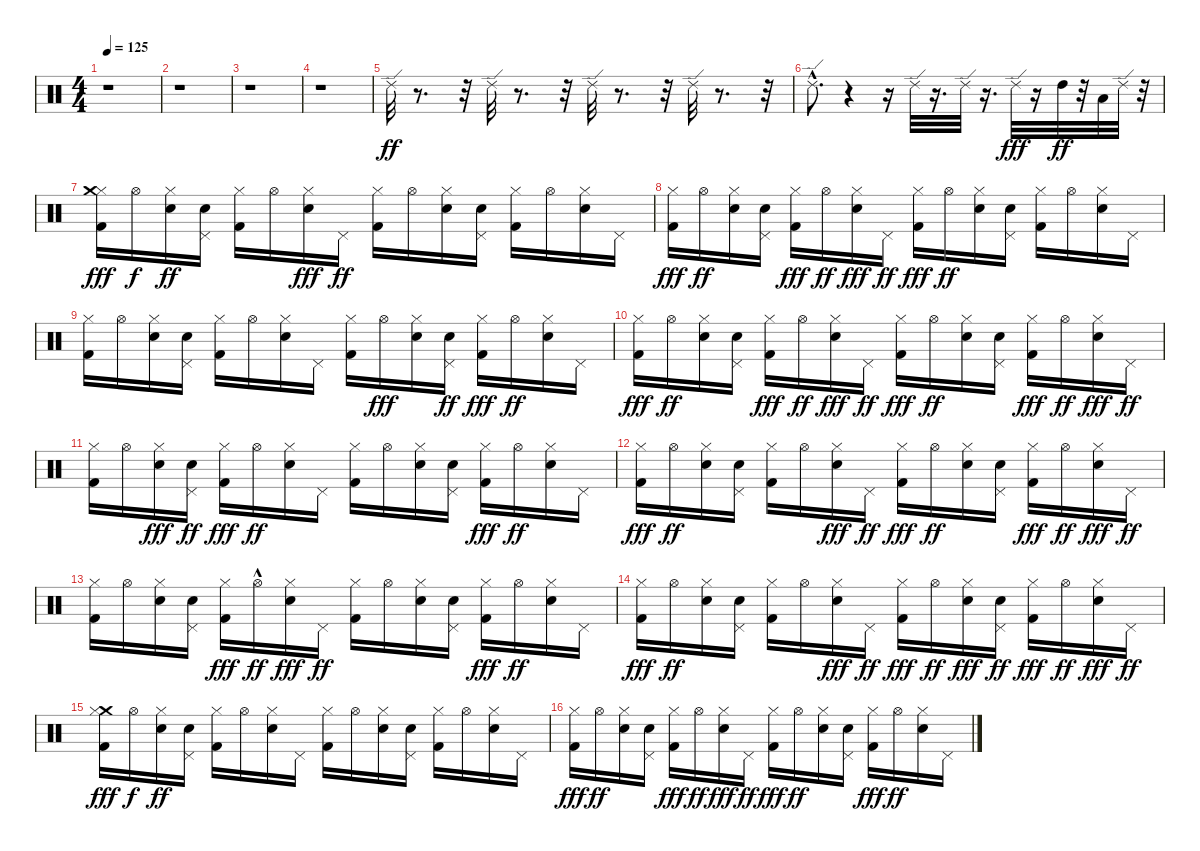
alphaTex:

\track "" {instrument percussion}
\staff {score}
\articulation defaults
\ts (4 4)
\tempo 125
\clef neutral
\ks c
r.1{dy ff} |
r.1 |
r.1 |
r.1 |
"Ride (edge) 2".32{balance 8} r.8{d} r.32 "Ride (edge) 2".32 r.8{d} r.32 "Ride (edge) 2".32 r.8{d} r.32 "Ride (edge) 2".32 r.8{d} r.32 |
"Ride (edge) 2"{hac}.8{d} r.4 r.16 "Ride (edge) 2".32 r.16{d} "Ride (edge) 2".32 r.16{d} "Ride (edge) 2".32{dy fff} r.16 "High Tom (hit)".32{dy ff} r.32 "Low Tom (hit)".32 "Ride (edge) 2".32 r.32 |
("Hi-Hat (closed)" "Kick (hit) 2" "Crash medium (hit)").16{dy fff} "Hi-Hat (open)".16{dy f} ("Electric Snare (hit)" "Hi-Hat (closed)").16{dy ff} ("Electric Snare (hit)" "Pedal Hi-Hat (hit)").16 ("Kick (hit) 2" "Hi-Hat (closed)").16 "Hi-Hat (open)".16 ("Electric Snare (hit)" "Hi-Hat (closed)").16{dy fff} "Pedal Hi-Hat (hit)".16{dy ff} ("Hi-Hat (closed)" "Kick (hit) 2").16 "Hi-Hat (open)".16 ("Electric Snare (hit)" "Hi-Hat (closed)").16 ("Pedal Hi-Hat (hit)" "Electric Snare (hit)").16 ("Hi-Hat (closed)" "Kick (hit) 2").16 "Hi-Hat (open)".16 ("Hi-Hat (closed)" "Electric Snare (hit)").16 "Pedal Hi-Hat (hit)".16 |
("Kick (hit) 2" "Hi-Hat (closed)").16{dy fff} "Hi-Hat (open)".16{dy ff} ("Electric Snare (hit)" "Hi-Hat (closed)").16 ("Electric Snare (hit)" "Pedal Hi-Hat (hit)").16 ("Kick (hit) 2" "Hi-Hat (closed)").16{dy fff} "Hi-Hat (open)".16{dy ff} ("Electric Snare (hit)" "Hi-Hat (closed)").16{dy fff} "Pedal Hi-Hat (hit)".16{dy ff} ("Hi-Hat (closed)" "Kick (hit) 2").16{dy fff} "Hi-Hat (open)".16{dy ff} ("Electric Snare (hit)" "Hi-Hat (closed)").16 ("Electric Snare (hit)" "Pedal Hi-Hat (hit)").16 ("Kick (hit) 2" "Hi-Hat (closed)").16 "Hi-Hat (open)".16 ("Electric Snare (hit)" "Hi-Hat (closed)").16 "Pedal Hi-Hat (hit)".16 |
("Kick (hit) 2" "Hi-Hat (closed)").16 "Hi-Hat (open)".16 ("Hi-Hat (closed)" "Electric Snare (hit)").16 ("Pedal Hi-Hat (hit)" "Electric Snare (hit)").16 ("Hi-Hat (closed)" "Kick (hit) 2").16 "Hi-Hat (open)".16 ("Electric Snare (hit)" "Hi-Hat (closed)").16 "Pedal Hi-Hat (hit)".16 ("Hi-Hat (closed)" "Kick (hit) 2").16 "Hi-Hat (open)".16{dy fff} ("Hi-Hat (closed)" "Electric Snare (hit)").16 ("Pedal Hi-Hat (hit)" "Electric Snare (hit)").16{dy ff} ("Hi-Hat (closed)" "Kick (hit) 2").16{dy fff} "Hi-Hat (open)".16{dy ff} ("Electric Snare (hit)" "Hi-Hat (closed)").16 "Pedal Hi-Hat (hit)".16 |
("Hi-Hat (closed)" "Kick (hit) 2").16{dy fff} "Hi-Hat (open)".16{dy ff} ("Hi-Hat (closed)" "Electric Snare (hit)").16 ("Electric Snare (hit)" "Pedal Hi-Hat (hit)").16 ("Kick (hit) 2" "Hi-Hat (closed)").16{dy fff} "Hi-Hat (open)".16{dy ff} ("Hi-Hat (closed)" "Electric Snare (hit)").16{dy fff} "Pedal Hi-Hat (hit)".16{dy ff} ("Kick (hit) 2" "Hi-Hat (closed)").16{dy fff} "Hi-Hat (open)".16{dy ff} ("Electric Snare (hit)" "Hi-Hat (closed)").16 ("Pedal Hi-Hat (hit)" "Electric Snare (hit)").16 ("Hi-Hat (closed)" "Kick (hit) 2").16{dy fff} "Hi-Hat (open)".16{dy ff} ("Hi-Hat (closed)" "Electric Snare (hit)").16{dy fff} "Pedal Hi-Hat (hit)".16{dy ff} |
("Hi-Hat (closed)" "Kick (hit) 2").16 "Hi-Hat (open)".16 ("Electric Snare (hit)" "Hi-Hat (closed)").16{dy fff} ("Electric Snare (hit)" "Pedal Hi-Hat (hit)").16{dy ff} ("Hi-Hat (closed)" "Kick (hit) 2").16{dy fff} "Hi-Hat (open)".16{dy ff} ("Hi-Hat (closed)" "Electric Snare (hit)").16 "Pedal Hi-Hat (hit)".16 ("Kick (hit) 2" "Hi-Hat (closed)").16 "Hi-Hat (open)".16 ("Electric Snare (hit)" "Hi-Hat (closed)").16 ("Electric Snare (hit)" "Pedal Hi-Hat (hit)").16 ("Kick (hit) 2" "Hi-Hat (closed)").16{dy fff} "Hi-Hat (open)".16{dy ff} ("Electric Snare (hit)" "Hi-Hat (closed)").16 "Pedal Hi-Hat (hit)".16 |
("Kick (hit) 2" "Hi-Hat (closed)").16{dy fff} "Hi-Hat (open)".16{dy ff} ("Hi-Hat (closed)" "Electric Snare (hit)").16 ("Pedal Hi-Hat (hit)" "Electric Snare (hit)").16 ("Kick (hit) 2" "Hi-Hat (closed)").16 "Hi-Hat (open)".16 ("Hi-Hat (closed)" "Electric Snare (hit)").16{dy fff} "Pedal Hi-Hat (hit)".16{dy ff} ("Hi-Hat (closed)" "Kick (hit) 2").16{dy fff} "Hi-Hat (open)".16{dy ff} ("Hi-Hat (closed)" "Electric Snare (hit)").16 ("Pedal Hi-Hat (hit)" "Electric Snare (hit)").16 ("Kick (hit) 2" "Hi-Hat (closed)").16{dy fff} "Hi-Hat (open)".16{dy ff} ("Hi-Hat (closed)" "Electric Snare (hit)").16{dy fff} "Pedal Hi-Hat (hit)".16{dy ff} |
("Kick (hit) 2" "Hi-Hat (closed)").16 "Hi-Hat (open)".16 ("Electric Snare (hit)" "Hi-Hat (closed)").16 ("Pedal Hi-Hat (hit)" "Electric Snare (hit)").16 ("Kick (hit) 2" "Hi-Hat (closed)").16{dy fff} "Hi-Hat (open)"{hac}.16{dy ff} ("Hi-Hat (closed)" "Electric Snare (hit)").16{dy fff} "Pedal Hi-Hat (hit)".16{dy ff} ("Kick (hit) 2" "Hi-Hat (closed)").16 "Hi-Hat (open)".16 ("Electric Snare (hit)" "Hi-Hat (closed)").16 ("Pedal Hi-Hat (hit)" "Electric Snare (hit)").16 ("Hi-Hat (closed)" "Kick (hit) 2").16{dy fff} "Hi-Hat (open)".16{dy ff} ("Electric Snare (hit)" "Hi-Hat (closed)").16 "Pedal Hi-Hat (hit)".16 |
("Hi-Hat (closed)" "Kick (hit) 2").16{dy fff} "Hi-Hat (open)".16{dy ff} ("Hi-Hat (closed)" "Electric Snare (hit)").16 ("Pedal Hi-Hat (hit)" "Electric Snare (hit)").16 ("Kick (hit) 2" "Hi-Hat (closed)").16 "Hi-Hat (open)".16 ("Hi-Hat (closed)" "Electric Snare (hit)").16{dy fff} "Pedal Hi-Hat (hit)".16{dy ff} ("Kick (hit) 2" "Hi-Hat (closed)").16{dy fff} "Hi-Hat (open)".16{dy ff} ("Hi-Hat (closed)" "Electric Snare (hit)").16{dy fff} ("Pedal Hi-Hat (hit)" "Electric Snare (hit)").16{dy ff} ("Hi-Hat (closed)" "Kick (hit) 2").16{dy fff} "Hi-Hat (open)".16{dy ff} ("Hi-Hat (closed)" "Electric Snare (hit)").16{dy fff} "Pedal Hi-Hat (hit)".16{dy ff} |
("Crash medium (hit)" "Hi-Hat (closed)" "Kick (hit) 2").16{dy fff} "Hi-Hat (open)".16{dy f} ("Electric Snare (hit)" "Hi-Hat (closed)").16{dy ff} ("Electric Snare (hit)" "Pedal Hi-Hat (hit)").16 ("Kick (hit) 2" "Hi-Hat (closed)").16 "Hi-Hat (open)".16 ("Hi-Hat (closed)" "Electric Snare (hit)").16 "Pedal Hi-Hat (hit)".16 ("Hi-Hat (closed)" "Kick (hit) 2").16 "Hi-Hat (open)".16 ("Hi-Hat (closed)" "Electric Snare (hit)").16 ("Pedal Hi-Hat (hit)" "Electric Snare (hit)").16 ("Hi-Hat (closed)" "Kick (hit) 2").16 "Hi-Hat (open)".16 ("Hi-Hat (closed)" "Electric Snare (hit)").16 "Pedal Hi-Hat (hit)".16 |
("Hi-Hat (closed)" "Kick (hit) 2").16{dy fff} "Hi-Hat (open)".16{dy ff} ("Electric Snare (hit)" "Hi-Hat (closed)").16 ("Pedal Hi-Hat (hit)" "Electric Snare (hit)").16 ("Hi-Hat (closed)" "Kick (hit) 2").16{dy fff} "Hi-Hat (open)".16{dy ff} ("Hi-Hat (closed)" "Electric Snare (hit)").16{dy fff} "Pedal Hi-Hat (hit)".16{dy ff} ("Hi-Hat (closed)" "Kick (hit) 2").16{dy fff} "Hi-Hat (open)".16{dy ff} ("Hi-Hat (closed)" "Electric Snare (hit)").16 ("Pedal Hi-Hat (hit)" "Electric Snare (hit)").16 ("Hi-Hat (closed)" "Kick (hit) 2").16{dy fff} "Hi-Hat (open)".16{dy ff} ("Hi-Hat (closed)" "Electric Snare (hit)").16 "Pedal Hi-Hat (hit)".16
